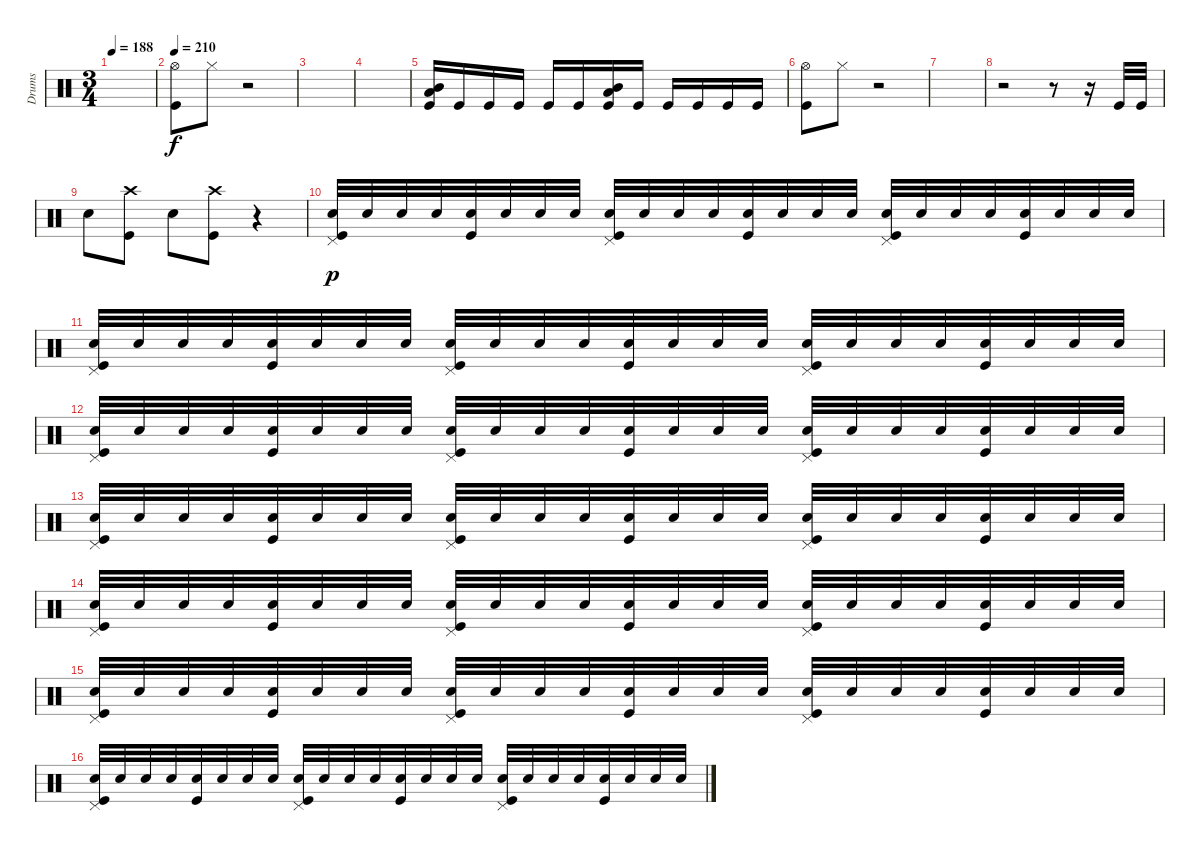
\track ("Drums" "Drums") {instrument percussion}
\staff {score}
\articulation defaults
\ts (3 4)
\tempo 188
\clef neutral
\ks c
|
\tempo 210
("Hi-Hat (open)" "Kick (hit)").8 "Hi-Hat (closed)".8 r.2 |
|
|
("Low Tom (hit)" "Mid Tom (hit)" "Kick (hit)").16 "Kick (hit)".16 "Kick (hit)".16 "Kick (hit)".16 "Kick (hit)".16 "Kick (hit)".16 ("Low Tom (hit)" "Mid Tom (hit)" "Kick (hit)").16 "Kick (hit)".16 "Kick (hit)".16 "Kick (hit)".16 "Kick (hit)".16 "Kick (hit)".16 |
("Hi-Hat (open)" "Kick (hit)").8 "Hi-Hat (closed)".8 r.2 |
|
r.2 r.8 r.16 "Kick (hit)".32 "Kick (hit)".32 |
"Snare (hit) 2".8 ("Crash high (hit)" "Kick (hit)").8 "Snare (hit) 2".8 ("Crash high (hit)" "Kick (hit)").8 r.4 |
("Snare (hit) 2" "Pedal Hi-Hat (hit)" "Kick (hit)").32{dy p} "Snare (hit) 2".32 "Snare (hit) 2".32 "Snare (hit) 2".32 ("Snare (hit) 2" "Kick (hit)").32 "Snare (hit) 2".32 "Snare (hit) 2".32 "Snare (hit) 2".32 ("Snare (hit) 2" "Pedal Hi-Hat (hit)" "Kick (hit)").32 "Snare (hit) 2".32 "Snare (hit) 2".32 "Snare (hit) 2".32 ("Snare (hit) 2" "Kick (hit)").32 "Snare (hit) 2".32 "Snare (hit) 2".32 "Snare (hit) 2".32 ("Snare (hit) 2" "Pedal Hi-Hat (hit)" "Kick (hit)").32 "Snare (hit) 2".32 "Snare (hit) 2".32 "Snare (hit) 2".32 ("Snare (hit) 2" "Kick (hit)").32 "Snare (hit) 2".32 "Snare (hit) 2".32 "Snare (hit) 2".32 |
("Snare (hit) 2" "Pedal Hi-Hat (hit)" "Kick (hit)").32 "Snare (hit) 2".32 "Snare (hit) 2".32 "Snare (hit) 2".32 ("Snare (hit) 2" "Kick (hit)").32 "Snare (hit) 2".32 "Snare (hit) 2".32 "Snare (hit) 2".32 ("Snare (hit) 2" "Pedal Hi-Hat (hit)" "Kick (hit)").32 "Snare (hit) 2".32 "Snare (hit) 2".32 "Snare (hit) 2".32 ("Snare (hit) 2" "Kick (hit)").32 "Snare (hit) 2".32 "Snare (hit) 2".32 "Snare (hit) 2".32 ("Snare (hit) 2" "Pedal Hi-Hat (hit)" "Kick (hit)").32 "Snare (hit) 2".32 "Snare (hit) 2".32 "Snare (hit) 2".32 ("Snare (hit) 2" "Kick (hit)").32 "Snare (hit) 2".32 "Snare (hit) 2".32 "Snare (hit) 2".32 |
("Snare (hit) 2" "Pedal Hi-Hat (hit)" "Kick (hit)").32 "Snare (hit) 2".32 "Snare (hit) 2".32 "Snare (hit) 2".32 ("Snare (hit) 2" "Kick (hit)").32 "Snare (hit) 2".32 "Snare (hit) 2".32 "Snare (hit) 2".32 ("Snare (hit) 2" "Pedal Hi-Hat (hit)" "Kick (hit)").32 "Snare (hit) 2".32 "Snare (hit) 2".32 "Snare (hit) 2".32 ("Snare (hit) 2" "Kick (hit)").32 "Snare (hit) 2".32 "Snare (hit) 2".32 "Snare (hit) 2".32 ("Snare (hit) 2" "Pedal Hi-Hat (hit)" "Kick (hit)").32 "Snare (hit) 2".32 "Snare (hit) 2".32 "Snare (hit) 2".32 ("Snare (hit) 2" "Kick (hit)").32 "Snare (hit) 2".32 "Snare (hit) 2".32 "Snare (hit) 2".32 |
("Snare (hit) 2" "Pedal Hi-Hat (hit)" "Kick (hit)").32 "Snare (hit) 2".32 "Snare (hit) 2".32 "Snare (hit) 2".32 ("Snare (hit) 2" "Kick (hit)").32 "Snare (hit) 2".32 "Snare (hit) 2".32 "Snare (hit) 2".32 ("Snare (hit) 2" "Pedal Hi-Hat (hit)" "Kick (hit)").32 "Snare (hit) 2".32 "Snare (hit) 2".32 "Snare (hit) 2".32 ("Snare (hit) 2" "Kick (hit)").32 "Snare (hit) 2".32 "Snare (hit) 2".32 "Snare (hit) 2".32 ("Snare (hit) 2" "Pedal Hi-Hat (hit)" "Kick (hit)").32 "Snare (hit) 2".32 "Snare (hit) 2".32 "Snare (hit) 2".32 ("Snare (hit) 2" "Kick (hit)").32 "Snare (hit) 2".32 "Snare (hit) 2".32 "Snare (hit) 2".32 |
("Snare (hit) 2" "Pedal Hi-Hat (hit)" "Kick (hit)").32 "Snare (hit) 2".32 "Snare (hit) 2".32 "Snare (hit) 2".32 ("Snare (hit) 2" "Kick (hit)").32 "Snare (hit) 2".32 "Snare (hit) 2".32 "Snare (hit) 2".32 ("Snare (hit) 2" "Pedal Hi-Hat (hit)" "Kick (hit)").32 "Snare (hit) 2".32 "Snare (hit) 2".32 "Snare (hit) 2".32 ("Snare (hit) 2" "Kick (hit)").32 "Snare (hit) 2".32 "Snare (hit) 2".32 "Snare (hit) 2".32 ("Snare (hit) 2" "Pedal Hi-Hat (hit)" "Kick (hit)").32 "Snare (hit) 2".32 "Snare (hit) 2".32 "Snare (hit) 2".32 ("Snare (hit) 2" "Kick (hit)").32 "Snare (hit) 2".32 "Snare (hit) 2".32 "Snare (hit) 2".32 |
("Snare (hit) 2" "Pedal Hi-Hat (hit)" "Kick (hit)").32 "Snare (hit) 2".32 "Snare (hit) 2".32 "Snare (hit) 2".32 ("Snare (hit) 2" "Kick (hit)").32 "Snare (hit) 2".32 "Snare (hit) 2".32 "Snare (hit) 2".32 ("Snare (hit) 2" "Pedal Hi-Hat (hit)" "Kick (hit)").32 "Snare (hit) 2".32 "Snare (hit) 2".32 "Snare (hit) 2".32 ("Snare (hit) 2" "Kick (hit)").32 "Snare (hit) 2".32 "Snare (hit) 2".32 "Snare (hit) 2".32 ("Snare (hit) 2" "Pedal Hi-Hat (hit)" "Kick (hit)").32 "Snare (hit) 2".32 "Snare (hit) 2".32 "Snare (hit) 2".32 ("Snare (hit) 2" "Kick (hit)").32 "Snare (hit) 2".32 "Snare (hit) 2".32 "Snare (hit) 2".32 |
("Snare (hit) 2" "Pedal Hi-Hat (hit)" "Kick (hit)").32 "Snare (hit) 2".32 "Snare (hit) 2".32 "Snare (hit) 2".32 ("Snare (hit) 2" "Kick (hit)").32 "Snare (hit) 2".32 "Snare (hit) 2".32 "Snare (hit) 2".32 ("Snare (hit) 2" "Pedal Hi-Hat (hit)" "Kick (hit)").32 "Snare (hit) 2".32 "Snare (hit) 2".32 "Snare (hit) 2".32 ("Snare (hit) 2" "Kick (hit)").32 "Snare (hit) 2".32 "Snare (hit) 2".32 "Snare (hit) 2".32 ("Snare (hit) 2" "Pedal Hi-Hat (hit)" "Kick (hit)").32 "Snare (hit) 2".32 "Snare (hit) 2".32 "Snare (hit) 2".32 ("Snare (hit) 2" "Kick (hit)").32 "Snare (hit) 2".32 "Snare (hit) 2".32 "Snare (hit) 2".32
